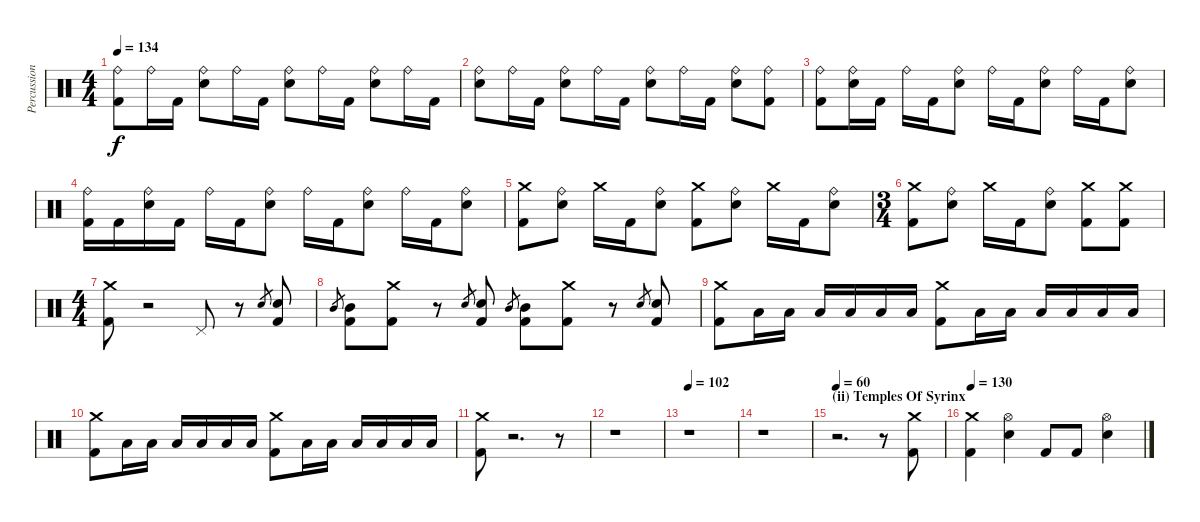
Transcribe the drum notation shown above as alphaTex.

\track ("Percussion" "Percussion") {instrument percussion}
\staff {score}
\articulation defaults
\ts (4 4)
\tempo 134
\clef neutral
\ks c
("Kick (hit) 2" "Ride (bell)").8{dy f} "Ride (bell)".16 "Kick (hit) 2".16 ("Electric Snare (hit)" "Ride (bell)").8 "Ride (bell)".16 "Kick (hit) 2".16 ("Electric Snare (hit)" "Ride (bell)").8 "Ride (bell)".16 "Kick (hit) 2".16 ("Electric Snare (hit)" "Ride (bell)").8 "Ride (bell)".16 "Kick (hit) 2".16 |
("Electric Snare (hit)" "Ride (bell)").8 "Ride (bell)".16 "Kick (hit) 2".16 ("Electric Snare (hit)" "Ride (bell)").8 "Ride (bell)".16 "Kick (hit) 2".16 ("Electric Snare (hit)" "Ride (bell)").8 "Ride (bell)".16 "Kick (hit) 2".16 ("Electric Snare (hit)" "Ride (bell)").8 ("Kick (hit) 2" "Ride (bell)").8 |
("Kick (hit) 2" "Ride (bell)").8 ("Electric Snare (hit)" "Ride (bell)").16 "Kick (hit) 2".16 "Ride (bell)".16 "Kick (hit) 2".16 ("Electric Snare (hit)" "Ride (bell)").8 "Ride (bell)".16 "Kick (hit) 2".16 ("Electric Snare (hit)" "Ride (bell)").8 "Ride (bell)".16 "Kick (hit) 2".16 ("Electric Snare (hit)" "Ride (bell)").8 |
("Kick (hit) 2" "Ride (bell)").16 "Kick (hit) 2".16 ("Electric Snare (hit)" "Ride (bell)").16 "Kick (hit) 2".16 "Ride (bell)".16 "Kick (hit) 2".16 ("Electric Snare (hit)" "Ride (bell)").8 "Ride (bell)".16 "Kick (hit) 2".16 ("Electric Snare (hit)" "Ride (bell)").8 "Ride (bell)".16 "Kick (hit) 2".16 ("Electric Snare (hit)" "Ride (bell)").8 |
("Kick (hit) 2" "Crash medium (hit)").8 ("Electric Snare (hit)" "Ride (bell)").8 "Crash medium (hit)".16 "Kick (hit) 2".16 ("Electric Snare (hit)" "Ride (bell)").8 ("Kick (hit) 2" "Crash medium (hit)").8 ("Electric Snare (hit)" "Ride (bell)").8 "Crash medium (hit)".16 "Kick (hit) 2".16 ("Electric Snare (hit)" "Ride (bell)").8 |
\ts (3 4)
("Kick (hit) 2" "Crash medium (hit)").8 ("Electric Snare (hit)" "Ride (bell)").8 "Crash medium (hit)".16 "Kick (hit) 2".16 ("Electric Snare (hit)" "Ride (bell)").8 ("Kick (hit) 2" "Crash medium (hit)").8 ("Kick (hit) 2" "Crash medium (hit)").8 |
\ts (4 4)
("Kick (hit) 2" "Crash medium (hit)").8 r.2 "Pedal Hi-Hat (hit)".8 r.8 "Electric Snare (hit)".8{gr} ("Kick (hit) 2" "Electric Snare (hit)").8 |
"Mid Tom (hit)".8{gr} ("Kick (hit) 2" "Mid Tom (hit)").8 ("Kick (hit) 2" "Crash medium (hit)").8 r.8 "Electric Snare (hit)".8{gr} ("Kick (hit) 2" "Electric Snare (hit)").8 "Mid Tom (hit)".8{gr} ("Kick (hit) 2" "Mid Tom (hit)").8 ("Kick (hit) 2" "Crash medium (hit)").8 r.8 "Electric Snare (hit)".8{gr} ("Kick (hit) 2" "Electric Snare (hit)").8 |
("Kick (hit) 2" "Crash medium (hit)").8 "Low Floor Tom (hit)".16 "Low Floor Tom (hit)".16 "Low Floor Tom (hit)".16 "Low Floor Tom (hit)".16 "Low Floor Tom (hit)".16 "Low Floor Tom (hit)".16 ("Kick (hit) 2" "Crash medium (hit)").8 "Low Floor Tom (hit)".16 "Low Floor Tom (hit)".16 "Low Floor Tom (hit)".16 "Low Floor Tom (hit)".16 "Low Floor Tom (hit)".16 "Low Floor Tom (hit)".16 |
("Kick (hit) 2" "Crash medium (hit)").8 "Low Floor Tom (hit)".16 "Low Floor Tom (hit)".16 "Low Floor Tom (hit)".16 "Low Floor Tom (hit)".16 "Low Floor Tom (hit)".16 "Low Floor Tom (hit)".16 ("Kick (hit) 2" "Crash medium (hit)").8 "Low Floor Tom (hit)".16 "Low Floor Tom (hit)".16 "Low Floor Tom (hit)".16 "Low Floor Tom (hit)".16 "Low Floor Tom (hit)".16 "Low Floor Tom (hit)".16 |
("Kick (hit) 2" "Crash medium (hit)").8 r.2{d} r.8 |
r.1 |
\tempo 102
r.1 |
r.1 |
\section ("" "(ii) Temples Of Syrinx")
\tempo 60
r.2{d} r.8 ("Kick (hit) 2" "Crash medium (hit)").8 |
\tempo 130
("Kick (hit) 2" "Crash medium (hit)").4 ("Electric Snare (hit)" "Hi-Hat (open)").4 "Kick (hit) 2".8 "Kick (hit) 2".8 ("Electric Snare (hit)" "Hi-Hat (open)").4
